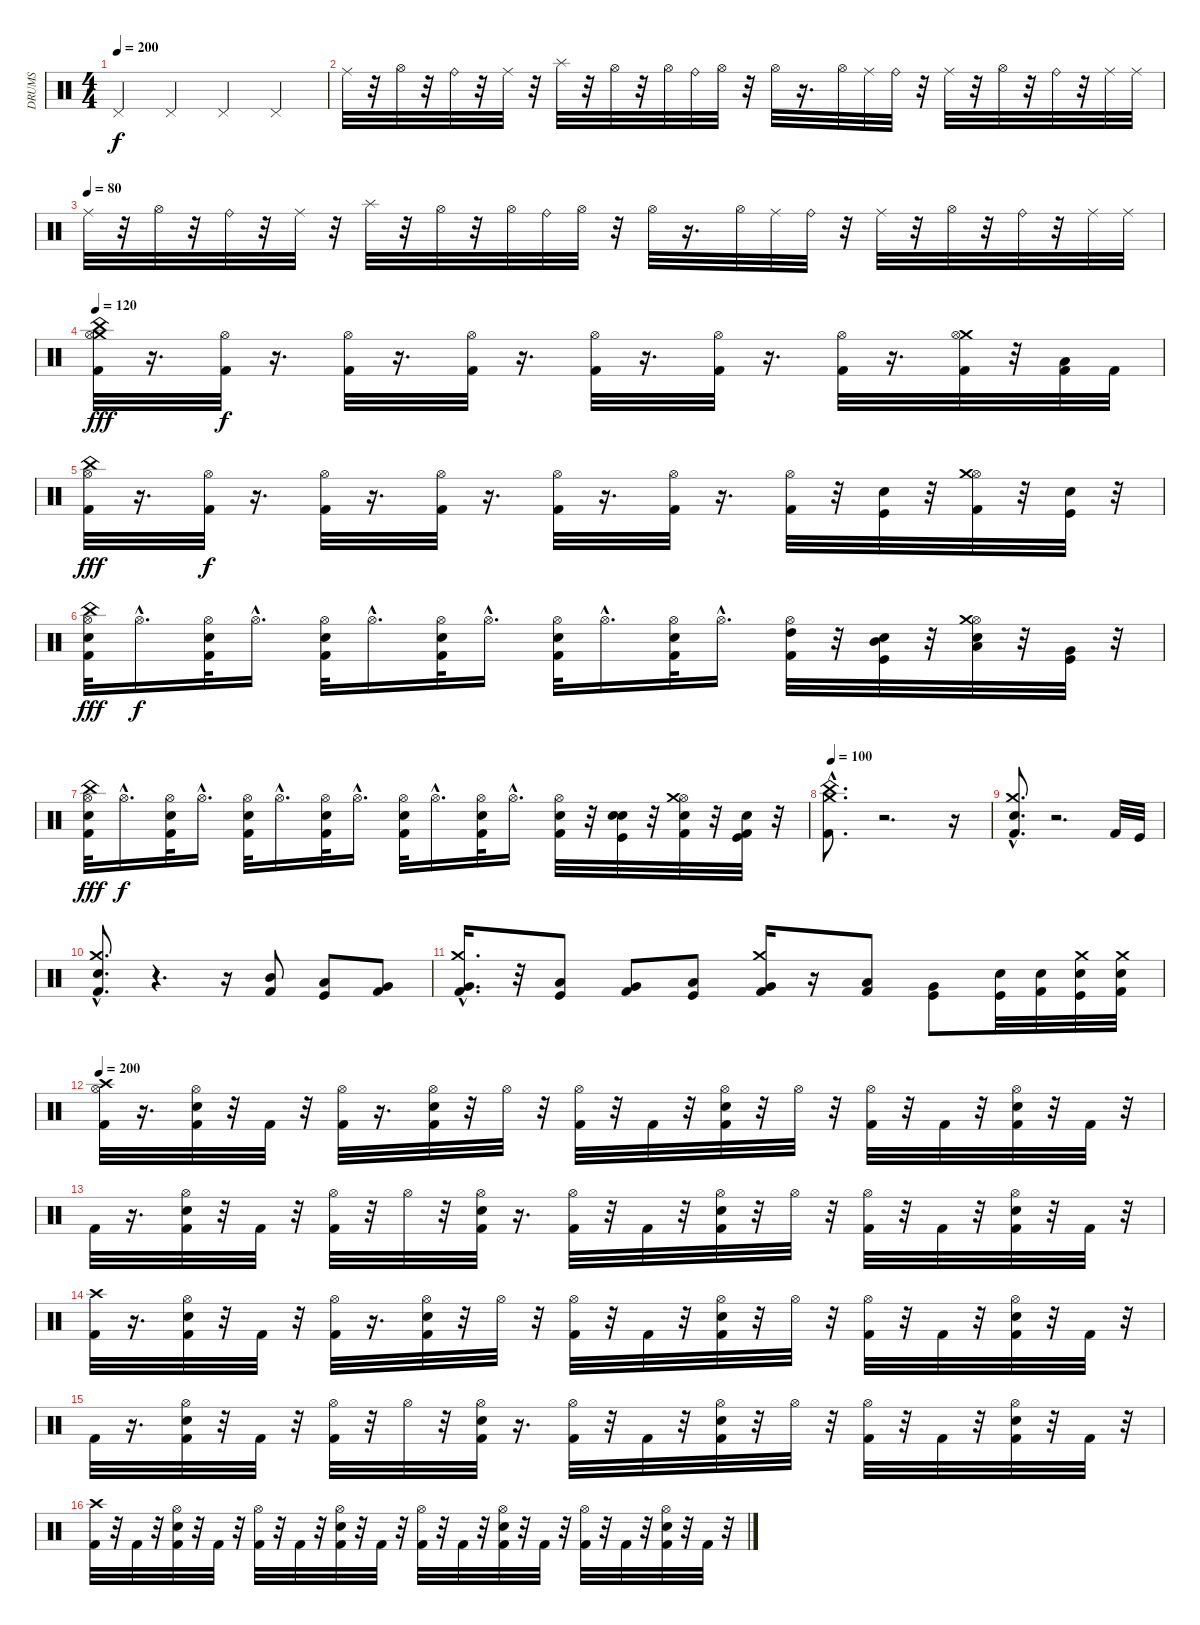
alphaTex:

\track ("DRUMS" "DRUMS") {instrument percussion}
\staff {score}
\articulation defaults
\ts (4 4)
\tempo 200
\tempo 80
\tempo 200
\clef neutral
\ks c "Pedal Hi-Hat (hit)".4{dy f} "Pedal Hi-Hat (hit)".4 "Pedal Hi-Hat (hit)".4 "Pedal Hi-Hat (hit)".4
|
"Ride (middle)".32 r.32 "Hi-Hat (open)".32 r.32 "Ride (bell)".32 r.32 "Ride (middle)".32 r.32 "Splash (hit)".32 r.32 "Hi-Hat (open)".32 r.32 "Hi-Hat (open)".32 "Ride (bell)".32 "Hi-Hat (open)".32 r.32 "Hi-Hat (open)".32 r.16{d} "Hi-Hat (open)".32 "Ride (middle)".32 "Ride (bell)".32 r.32 "Ride (middle)".32 r.32 "Hi-Hat (open)".32 r.32 "Ride (bell)".32 r.32 "Ride (middle)".32 "Ride (middle)".32 |
\tempo (80)
"Ride (middle)".32 r.32 "Hi-Hat (open)".32 r.32 "Ride (bell)".32 r.32 "Ride (middle)".32 r.32 "Splash (hit)".32 r.32 "Hi-Hat (open)".32 r.32 "Hi-Hat (open)".32 "Ride (bell)".32 "Hi-Hat (open)".32 r.32 "Hi-Hat (open)".32 r.16{d} "Hi-Hat (open)".32 "Ride (middle)".32 "Ride (bell)".32 r.32 "Ride (middle)".32 r.32 "Hi-Hat (open)".32 r.32 "Ride (bell)".32 r.32 "Ride (middle)".32 "Ride (middle)".32 |
\tempo 120
("China (hit)" "Kick (hit) 2" "Crash medium (hit)" "Hi-Hat (open)").32{dy fff} r.16{d} ("Hi-Hat (open)" "Kick (hit) 2").32{dy f} r.16{d} ("Hi-Hat (open)" "Kick (hit) 2").32 r.16{d} ("Hi-Hat (open)" "Kick (hit) 2").32 r.16{d} ("Hi-Hat (open)" "Kick (hit) 2").32 r.16{d} ("Hi-Hat (open)" "Kick (hit) 2").32 r.16{d} ("Hi-Hat (open)" "Kick (hit) 2").32 r.16{d} ("Crash medium (hit)" "Hi-Hat (open)" "Kick (hit) 2").32 r.32 ("Kick (hit) 2" "Low Floor Tom (hit)").32 "Kick (hit) 2".32 |
("China (hit)" "Kick (hit) 2" "Hi-Hat (open)").32{dy fff} r.16{d} ("Kick (hit) 2" "Hi-Hat (open)").32{dy f} r.16{d} ("Hi-Hat (open)" "Kick (hit) 2").32 r.16{d} ("Hi-Hat (open)" "Kick (hit) 2").32 r.16{d} ("Kick (hit) 2" "Hi-Hat (open)").32 r.16{d} ("Kick (hit) 2" "Hi-Hat (open)").32 r.16{d} ("Hi-Hat (open)" "Kick (hit) 2").32 r.32 ("Snare (hit) 2" "Kick (hit)").32 r.32 ("Kick (hit) 2" "Hi-Hat (open)" "Crash medium (hit)").32 r.32 ("Snare (hit) 2" "Kick (hit)").32 r.32 |
("China (hit)" "Kick (hit) 2" "Hi-Hat (open)" "Snare (hit) 2").32{dy fff} "Hi-Hat (open)"{hac}.16{d dy f} ("Kick (hit) 2" "Hi-Hat (open)" "Snare (hit) 2").32 "Hi-Hat (open)"{hac}.16{d} ("Hi-Hat (open)" "Kick (hit) 2" "Snare (hit) 2").32 "Hi-Hat (open)"{hac}.16{d} ("Hi-Hat (open)" "Kick (hit) 2" "Snare (hit) 2").32 "Hi-Hat (open)"{hac}.16{d} ("Kick (hit) 2" "Hi-Hat (open)" "Snare (hit) 2").32 "Hi-Hat (open)"{hac}.16{d} ("Kick (hit) 2" "Hi-Hat (open)" "Snare (hit) 2").32 "Hi-Hat (open)"{hac}.16{d} ("Hi-Hat (open)" "Kick (hit) 2" "High Tom (hit)").32 r.32 ("Snare (hit) 2" "Kick (hit)" "Mid Tom (hit)").32 r.32 ("Snare (hit) 2" "Hi-Hat (open)" "Crash medium (hit)" "Low Tom (hit)").32 r.32 ("Kick (hit)" "Very Low Tom (hit)").32 r.32 |
("China (hit)" "Kick (hit) 2" "Hi-Hat (open)" "Snare (hit) 2").32{dy fff} "Hi-Hat (open)"{hac}.16{d dy f} ("Kick (hit) 2" "Hi-Hat (open)" "Snare (hit) 2").32 "Hi-Hat (open)"{hac}.16{d} ("Hi-Hat (open)" "Kick (hit) 2" "Snare (hit) 2").32 "Hi-Hat (open)"{hac}.16{d} ("Hi-Hat (open)" "Kick (hit) 2" "Snare (hit) 2").32 "Hi-Hat (open)"{hac}.16{d} ("Kick (hit) 2" "Hi-Hat (open)" "Snare (hit) 2").32 "Hi-Hat (open)"{hac}.16{d} ("Kick (hit) 2" "Hi-Hat (open)" "Snare (hit) 2").32 "Hi-Hat (open)"{hac}.16{d} ("Hi-Hat (open)" "Kick (hit) 2" "Snare (hit) 2").32 r.32 ("Snare (hit) 2" "Kick (hit)" "Snare (hit) 2").32 r.32 ("Kick (hit) 2" "Hi-Hat (open)" "Crash medium (hit)" "Snare (hit) 2").32 r.32 ("Snare (hit) 2" "Kick (hit)" "Kick (hit) 2").32 r.32 |
\tempo 100
("Kick (hit) 2"{hac} "China (hit)" "Crash medium (hit)"{hac}).8{d} r.2{d} r.16 |
("Kick (hit) 2"{hac} "Crash medium (hit)"{hac} "Snare (hit) 2"{hac}).8{d} r.2{d} "Kick (hit) 2".32 "Kick (hit)".32 |
("Crash medium (hit)"{hac} "Snare (hit) 2"{hac} "Kick (hit) 2"{hac}).8{d} r.4{d} r.16 ("Kick (hit) 2" "Mid Tom (hit)").8 ("Kick (hit)" "Low Tom (hit)").8 ("Kick (hit) 2" "Very Low Tom (hit)").8 |
("Very Low Tom (hit)"{hac} "Crash medium (hit)"{hac} "Kick (hit) 2"{hac}).16{d} r.32 ("Kick (hit)" "Low Tom (hit)").8 ("Kick (hit) 2" "Very Low Tom (hit)").8 ("Kick (hit)" "Low Floor Tom (hit)").8 ("Crash medium (hit)" "Very Low Tom (hit)" "Kick (hit) 2").16 r.16 ("Kick (hit) 2" "Low Tom (hit)").8 ("Kick (hit)" "Very Low Tom (hit)").8 ("Kick (hit)" "Electric Snare (hit)").32 ("Kick (hit) 2" "Electric Snare (hit)").32 ("Kick (hit)" "Electric Snare (hit)" "Crash medium (hit)").32 ("Kick (hit) 2" "Electric Snare (hit)" "Crash medium (hit)").32 |
\tempo 200
("Hi-Hat (open)" "Kick (hit) 2" "Crash high (hit)").32 r.16{d} ("Kick (hit) 2" "Hi-Hat (open)" "Snare (hit) 2").32 r.32 "Kick (hit) 2".32 r.32 ("Kick (hit) 2" "Hi-Hat (open)").32 r.16{d} ("Hi-Hat (open)" "Kick (hit) 2" "Snare (hit) 2").32 r.32 "Hi-Hat (open)".32 r.32 ("Hi-Hat (open)" "Kick (hit) 2").32 r.32 "Kick (hit) 2".32 r.32 ("Kick (hit) 2" "Snare (hit) 2" "Hi-Hat (open)").32 r.32 "Hi-Hat (open)".32 r.32 ("Kick (hit) 2" "Hi-Hat (open)").32 r.32 "Kick (hit) 2".32 r.32 ("Snare (hit) 2" "Kick (hit) 2" "Hi-Hat (open)").32 r.32 "Kick (hit) 2".32 r.32 |
"Kick (hit) 2".32 r.16{d} ("Snare (hit) 2" "Hi-Hat (open)" "Kick (hit) 2").32 r.32 "Kick (hit) 2".32 r.32 ("Hi-Hat (open)" "Kick (hit) 2").32 r.32 "Hi-Hat (open)".32 r.32 ("Kick (hit) 2" "Snare (hit) 2" "Hi-Hat (open)").32 r.16{d} ("Hi-Hat (open)" "Kick (hit) 2").32 r.32 "Kick (hit) 2".32 r.32 ("Hi-Hat (open)" "Snare (hit) 2" "Kick (hit) 2").32 r.32 "Hi-Hat (open)".32 r.32 ("Kick (hit) 2" "Hi-Hat (open)").32 r.32 "Kick (hit) 2".32 r.32 ("Kick (hit) 2" "Hi-Hat (open)" "Snare (hit) 2").32 r.32 "Kick (hit) 2".32 r.32 |
("Crash high (hit)" "Kick (hit) 2").32 r.16{d} ("Snare (hit) 2" "Hi-Hat (open)" "Kick (hit) 2").32 r.32 "Kick (hit) 2".32 r.32 ("Kick (hit) 2" "Hi-Hat (open)").32 r.16{d} ("Hi-Hat (open)" "Snare (hit) 2" "Kick (hit) 2").32 r.32 "Hi-Hat (open)".32 r.32 ("Hi-Hat (open)" "Kick (hit) 2").32 r.32 "Kick (hit) 2".32 r.32 ("Hi-Hat (open)" "Snare (hit) 2" "Kick (hit) 2").32 r.32 "Hi-Hat (open)".32 r.32 ("Kick (hit) 2" "Hi-Hat (open)").32 r.32 "Kick (hit) 2".32 r.32 ("Snare (hit) 2" "Kick (hit) 2" "Hi-Hat (open)").32 r.32 "Kick (hit) 2".32 r.32 |
"Kick (hit) 2".32 r.16{d} ("Hi-Hat (open)" "Snare (hit) 2" "Kick (hit) 2").32 r.32 "Kick (hit) 2".32 r.32 ("Kick (hit) 2" "Hi-Hat (open)").32 r.32 "Hi-Hat (open)".32 r.32 ("Kick (hit) 2" "Snare (hit) 2" "Hi-Hat (open)").32 r.16{d} ("Kick (hit) 2" "Hi-Hat (open)").32 r.32 "Kick (hit) 2".32 r.32 ("Snare (hit) 2" "Kick (hit) 2" "Hi-Hat (open)").32 r.32 "Hi-Hat (open)".32 r.32 ("Kick (hit) 2" "Hi-Hat (open)").32 r.32 "Kick (hit) 2".32 r.32 ("Snare (hit) 2" "Kick (hit) 2" "Hi-Hat (open)").32 r.32 "Kick (hit) 2".32 r.32 |
("Kick (hit) 2" "Crash high (hit)").32 r.32 "Kick (hit) 2".32 r.32 ("Snare (hit) 2" "Hi-Hat (open)" "Kick (hit) 2").32 r.32 "Kick (hit) 2".32 r.32 ("Hi-Hat (open)" "Kick (hit) 2").32 r.32 "Kick (hit) 2".32 r.32 ("Snare (hit) 2" "Kick (hit) 2" "Hi-Hat (open)").32 r.32 "Kick (hit) 2".32 r.32 ("Kick (hit) 2" "Hi-Hat (open)").32 r.32 "Kick (hit) 2".32 r.32 ("Kick (hit) 2" "Snare (hit) 2" "Hi-Hat (open)").32 r.32 "Kick (hit) 2".32 r.32 ("Hi-Hat (open)" "Kick (hit) 2").32 r.32 "Kick (hit) 2".32 r.32 ("Hi-Hat (open)" "Snare (hit) 2" "Kick (hit) 2").32 r.32 "Kick (hit) 2".32 r.32
